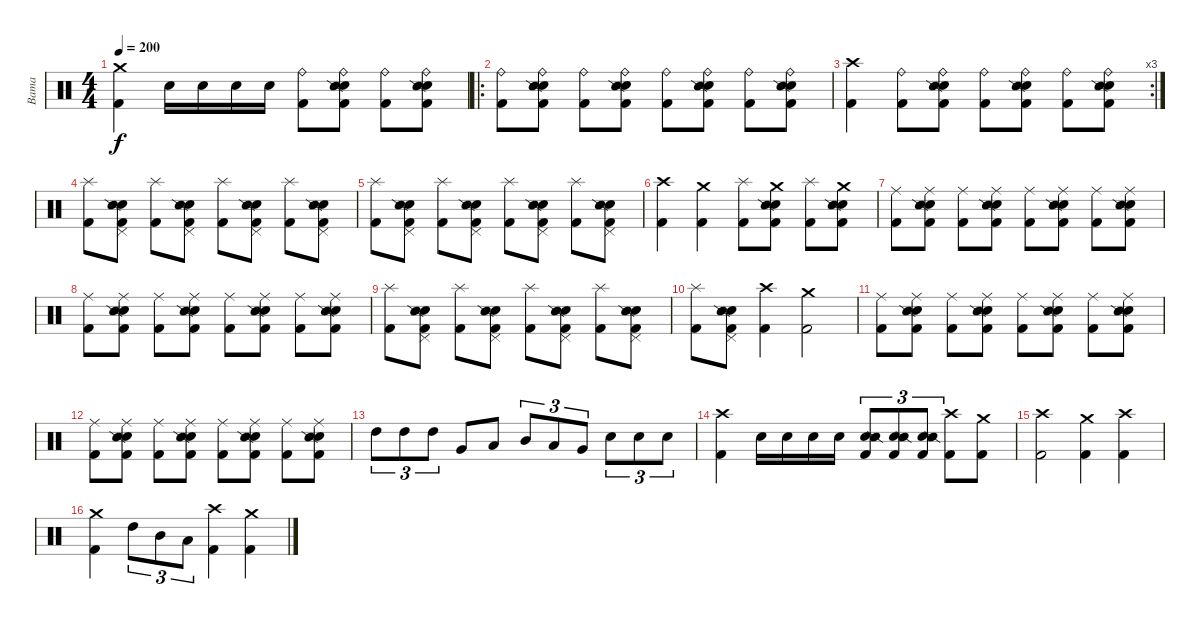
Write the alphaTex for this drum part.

\track ("Bama" "Bama") {instrument percussion}
\staff {score}
\articulation defaults
\ts (4 4)
\tempo 200
\clef neutral
\ks c
("Crash medium (hit)" "Kick (hit) 2").4{dy f} "Electric Snare (hit)".16 "Electric Snare (hit)".16 "Electric Snare (hit)".16 "Electric Snare (hit)".16 ("Ride (bell)" "Kick (hit) 2").8 ("Ride (bell)" "Electric Snare (hit)" "Snare (side stick) 2" "Kick (hit) 2").8 ("Ride (bell)" "Kick (hit) 2").8 ("Ride (bell)" "Electric Snare (hit)" "Snare (side stick) 2" "Kick (hit) 2").8 |
\ro
("Ride (bell)" "Kick (hit) 2").8 ("Ride (bell)" "Electric Snare (hit)" "Snare (side stick) 2" "Kick (hit) 2").8 ("Ride (bell)" "Kick (hit) 2").8 ("Ride (bell)" "Electric Snare (hit)" "Snare (side stick) 2" "Kick (hit) 2").8 ("Ride (bell)" "Kick (hit) 2").8 ("Ride (bell)" "Electric Snare (hit)" "Snare (side stick) 2" "Kick (hit) 2").8 ("Ride (bell)" "Kick (hit) 2").8 ("Ride (bell)" "Electric Snare (hit)" "Snare (side stick) 2" "Kick (hit) 2").8 |
\rc 3
("Crash high (hit)" "Kick (hit) 2").4 ("Ride (bell)" "Kick (hit) 2").8 ("Ride (bell)" "Electric Snare (hit)" "Snare (side stick) 2" "Kick (hit) 2").8 ("Ride (bell)" "Kick (hit) 2").8 ("Ride (bell)" "Electric Snare (hit)" "Snare (side stick) 2" "Kick (hit) 2").8 ("Ride (bell)" "Kick (hit) 2").8 ("Ride (bell)" "Electric Snare (hit)" "Snare (side stick) 2" "Kick (hit) 2").8 |
("Splash (hit)" "Kick (hit) 2").8 ("Pedal Hi-Hat (hit)" "Electric Snare (hit)" "Snare (side stick) 2" "Kick (hit) 2").8 ("Splash (hit)" "Kick (hit) 2").8 ("Pedal Hi-Hat (hit)" "Electric Snare (hit)" "Snare (side stick) 2" "Kick (hit) 2").8 ("Splash (hit)" "Kick (hit) 2").8 ("Pedal Hi-Hat (hit)" "Electric Snare (hit)" "Snare (side stick) 2" "Kick (hit) 2").8 ("Splash (hit)" "Kick (hit) 2").8 ("Pedal Hi-Hat (hit)" "Electric Snare (hit)" "Snare (side stick) 2" "Kick (hit) 2").8 |
("Splash (hit)" "Kick (hit) 2").8 ("Pedal Hi-Hat (hit)" "Electric Snare (hit)" "Snare (side stick) 2" "Kick (hit) 2").8 ("Splash (hit)" "Kick (hit) 2").8 ("Pedal Hi-Hat (hit)" "Electric Snare (hit)" "Snare (side stick) 2" "Kick (hit) 2").8 ("Splash (hit)" "Kick (hit) 2").8 ("Pedal Hi-Hat (hit)" "Electric Snare (hit)" "Snare (side stick) 2" "Kick (hit) 2").8 ("Splash (hit)" "Kick (hit) 2").8 ("Pedal Hi-Hat (hit)" "Electric Snare (hit)" "Snare (side stick) 2" "Kick (hit) 2").8 |
("Crash high (hit)" "Kick (hit) 2").4 ("Crash medium (hit)" "Kick (hit) 2").4 ("Splash (hit)" "Kick (hit) 2").8 ("Crash medium (hit)" "Electric Snare (hit)" "Snare (side stick) 2" "Kick (hit) 2").8 ("Splash (hit)" "Kick (hit) 2").8 ("Crash medium (hit)" "Electric Snare (hit)" "Snare (side stick) 2" "Kick (hit) 2").8 |
("Ride (middle)" "Kick (hit) 2").8 ("Ride (middle)" "Electric Snare (hit)" "Snare (side stick) 2" "Kick (hit) 2").8 ("Ride (middle)" "Kick (hit) 2").8 ("Ride (middle)" "Electric Snare (hit)" "Snare (side stick) 2" "Kick (hit) 2").8 ("Ride (middle)" "Kick (hit) 2").8 ("Ride (middle)" "Electric Snare (hit)" "Snare (side stick) 2" "Kick (hit) 2").8 ("Ride (middle)" "Kick (hit) 2").8 ("Ride (middle)" "Electric Snare (hit)" "Snare (side stick) 2" "Kick (hit) 2").8 |
("Ride (middle)" "Kick (hit) 2").8 ("Ride (middle)" "Electric Snare (hit)" "Snare (side stick) 2" "Kick (hit) 2").8 ("Ride (middle)" "Kick (hit) 2").8 ("Ride (middle)" "Electric Snare (hit)" "Snare (side stick) 2" "Kick (hit) 2").8 ("Ride (middle)" "Kick (hit) 2").8 ("Ride (middle)" "Electric Snare (hit)" "Snare (side stick) 2" "Kick (hit) 2").8 ("Ride (middle)" "Kick (hit) 2").8 ("Ride (middle)" "Electric Snare (hit)" "Snare (side stick) 2" "Kick (hit) 2").8 |
("Splash (hit)" "Kick (hit) 2").8 ("Pedal Hi-Hat (hit)" "Electric Snare (hit)" "Snare (side stick) 2" "Kick (hit) 2").8 ("Splash (hit)" "Kick (hit) 2").8 ("Pedal Hi-Hat (hit)" "Electric Snare (hit)" "Snare (side stick) 2" "Kick (hit) 2").8 ("Splash (hit)" "Kick (hit) 2").8 ("Pedal Hi-Hat (hit)" "Electric Snare (hit)" "Snare (side stick) 2" "Kick (hit) 2").8 ("Splash (hit)" "Kick (hit) 2").8 ("Pedal Hi-Hat (hit)" "Electric Snare (hit)" "Snare (side stick) 2" "Kick (hit) 2").8 |
("Splash (hit)" "Kick (hit) 2").8 ("Pedal Hi-Hat (hit)" "Electric Snare (hit)" "Snare (side stick) 2" "Kick (hit) 2").8 ("Crash high (hit)" "Kick (hit) 2").4 ("Crash medium (hit)" "Kick (hit) 2").2 |
("Ride (middle)" "Kick (hit) 2").8 ("Ride (middle)" "Electric Snare (hit)" "Snare (side stick) 2" "Kick (hit) 2").8 ("Ride (middle)" "Kick (hit) 2").8 ("Ride (middle)" "Electric Snare (hit)" "Snare (side stick) 2" "Kick (hit) 2").8 ("Ride (middle)" "Kick (hit) 2").8 ("Ride (middle)" "Electric Snare (hit)" "Snare (side stick) 2" "Kick (hit) 2").8 ("Ride (middle)" "Kick (hit) 2").8 ("Ride (middle)" "Electric Snare (hit)" "Snare (side stick) 2" "Kick (hit) 2").8 |
("Ride (middle)" "Kick (hit) 2").8 ("Ride (middle)" "Electric Snare (hit)" "Snare (side stick) 2" "Kick (hit) 2").8 ("Ride (middle)" "Kick (hit) 2").8 ("Ride (middle)" "Electric Snare (hit)" "Snare (side stick) 2" "Kick (hit) 2").8 ("Ride (middle)" "Kick (hit) 2").8 ("Ride (middle)" "Electric Snare (hit)" "Snare (side stick) 2" "Kick (hit) 2").8 ("Ride (middle)" "Kick (hit) 2").8 ("Ride (middle)" "Electric Snare (hit)" "Snare (side stick) 2" "Kick (hit) 2").8 |
"High Tom (hit)".8{tu (3 2)} "High Tom (hit)".8{tu (3 2)} "High Tom (hit)".8{tu (3 2)} "Very Low Tom (hit)".8 "Low Floor Tom (hit)".8 "Mid Tom (hit)".8{tu (3 2)} "Low Tom (hit)".8{tu (3 2)} "Very Low Tom (hit)".8{tu (3 2)} "Electric Snare (hit)".8{tu (3 2)} "Electric Snare (hit)".8{tu (3 2)} "Electric Snare (hit)".8{tu (3 2)} |
("Crash high (hit)" "Kick (hit) 2").4 "Electric Snare (hit)".16 "Electric Snare (hit)".16 "Electric Snare (hit)".16 "Electric Snare (hit)".16 ("Electric Snare (hit)" "Snare (side stick) 2" "Kick (hit) 2").8{tu (3 2)} ("Electric Snare (hit)" "Snare (side stick) 2" "Kick (hit) 2").8{tu (3 2)} ("Electric Snare (hit)" "Snare (side stick) 2" "Kick (hit) 2").8{tu (3 2)} ("Crash high (hit)" "Kick (hit) 2").8 ("Crash medium (hit)" "Kick (hit) 2").8 |
("Crash high (hit)" "Kick (hit) 2").2 ("Crash medium (hit)" "Kick (hit) 2").4 ("Crash high (hit)" "Kick (hit) 2").4 |
("Crash medium (hit)" "Kick (hit) 2").4 "High Tom (hit)".8{tu (3 2)} "Mid Tom (hit)".8{tu (3 2)} "Low Tom (hit)".8{tu (3 2)} ("Crash high (hit)" "Kick (hit) 2").4 ("Crash medium (hit)" "Kick (hit) 2").4
